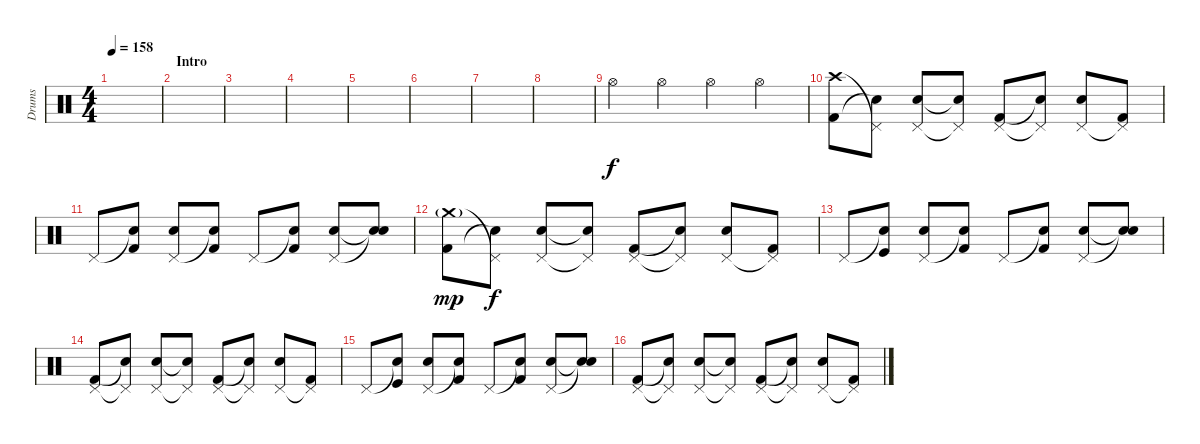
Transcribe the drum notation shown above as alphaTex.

\track ("Drums" "Drums") {instrument percussion}
\staff {score}
\articulation defaults
\ts (4 4)
\tempo 158
\clef neutral
\ks c
|
\section ("" "Intro")
|
|
|
|
|
|
|
"Hi-Hat (open)".4 "Hi-Hat (open)".4 "Hi-Hat (open)".4 "Hi-Hat (open)".4 |
("Crash high (hit)" "Kick (hit) 2").8 ("Pedal Hi-Hat (hit)"{t} "Electric Snare (hit)"{t}).8 ("Pedal Hi-Hat (hit)" "Electric Snare (hit)").8 ("Pedal Hi-Hat (hit)"{t} "Snare (hit)"{t}).8 ("Pedal Hi-Hat (hit)" "Kick (hit) 2").8 ("Pedal Hi-Hat (hit)"{t} "Electric Snare (hit)"{t}).8 ("Pedal Hi-Hat (hit)" "Electric Snare (hit)").8 ("Pedal Hi-Hat (hit)"{t} "Kick (hit) 2").8 |
"Pedal Hi-Hat (hit)".8 ("Snare (hit)"{t} "Kick (hit) 2").8 ("Pedal Hi-Hat (hit)" "Electric Snare (hit)").8 ("Snare (hit)"{t} "Kick (hit) 2").8 "Pedal Hi-Hat (hit)".8 ("Snare (hit)"{t} "Kick (hit) 2").8 ("Pedal Hi-Hat (hit)" "Electric Snare (hit)").8 ("Snare (hit)"{t} "Snare (hit)"{t}).8 |
("Crash medium (hit)"{g} "Kick (hit) 2").8{dy mp} ("Pedal Hi-Hat (hit)"{t} "Electric Snare (hit)"{t}).8{dy f} ("Pedal Hi-Hat (hit)" "Electric Snare (hit)").8 ("Pedal Hi-Hat (hit)"{t} "Snare (hit)"{t}).8 ("Pedal Hi-Hat (hit)" "Kick (hit) 2").8 ("Pedal Hi-Hat (hit)"{t} "Electric Snare (hit)"{t}).8 ("Pedal Hi-Hat (hit)" "Electric Snare (hit)").8 ("Pedal Hi-Hat (hit)"{t} "Kick (hit) 2").8 |
"Pedal Hi-Hat (hit)".8 ("Snare (hit)"{t} "Kick (hit)").8 ("Pedal Hi-Hat (hit)" "Electric Snare (hit)").8 ("Snare (hit)"{t} "Kick (hit) 2").8 "Pedal Hi-Hat (hit)".8 ("Snare (hit)"{t} "Kick (hit) 2").8 ("Pedal Hi-Hat (hit)" "Electric Snare (hit)").8 ("Snare (hit)"{t} "Snare (hit)"{t}).8 |
("Pedal Hi-Hat (hit)" "Kick (hit) 2").8 ("Pedal Hi-Hat (hit)"{t} "Snare (hit)"{t}).8 ("Pedal Hi-Hat (hit)" "Electric Snare (hit)").8 ("Pedal Hi-Hat (hit)"{t} "Snare (hit)"{t}).8 ("Pedal Hi-Hat (hit)" "Kick (hit) 2").8 ("Pedal Hi-Hat (hit)"{t} "Electric Snare (hit)"{t}).8 ("Pedal Hi-Hat (hit)" "Electric Snare (hit)").8 ("Pedal Hi-Hat (hit)"{t} "Kick (hit) 2").8 |
"Pedal Hi-Hat (hit)".8 ("Snare (hit)"{t} "Kick (hit)").8 ("Pedal Hi-Hat (hit)" "Electric Snare (hit)").8 ("Snare (hit)"{t} "Kick (hit) 2").8 "Pedal Hi-Hat (hit)".8 ("Snare (hit)"{t} "Kick (hit) 2").8 ("Pedal Hi-Hat (hit)" "Electric Snare (hit)").8 ("Snare (hit)"{t} "Snare (hit)"{t}).8 |
("Pedal Hi-Hat (hit)" "Kick (hit) 2").8 ("Pedal Hi-Hat (hit)"{t} "Electric Snare (hit)"{t}).8 ("Pedal Hi-Hat (hit)" "Electric Snare (hit)").8 ("Pedal Hi-Hat (hit)"{t} "Snare (hit)"{t}).8 ("Pedal Hi-Hat (hit)" "Kick (hit) 2").8 ("Pedal Hi-Hat (hit)"{t} "Electric Snare (hit)"{t}).8 ("Pedal Hi-Hat (hit)" "Electric Snare (hit)").8 ("Pedal Hi-Hat (hit)"{t} "Kick (hit) 2").8
